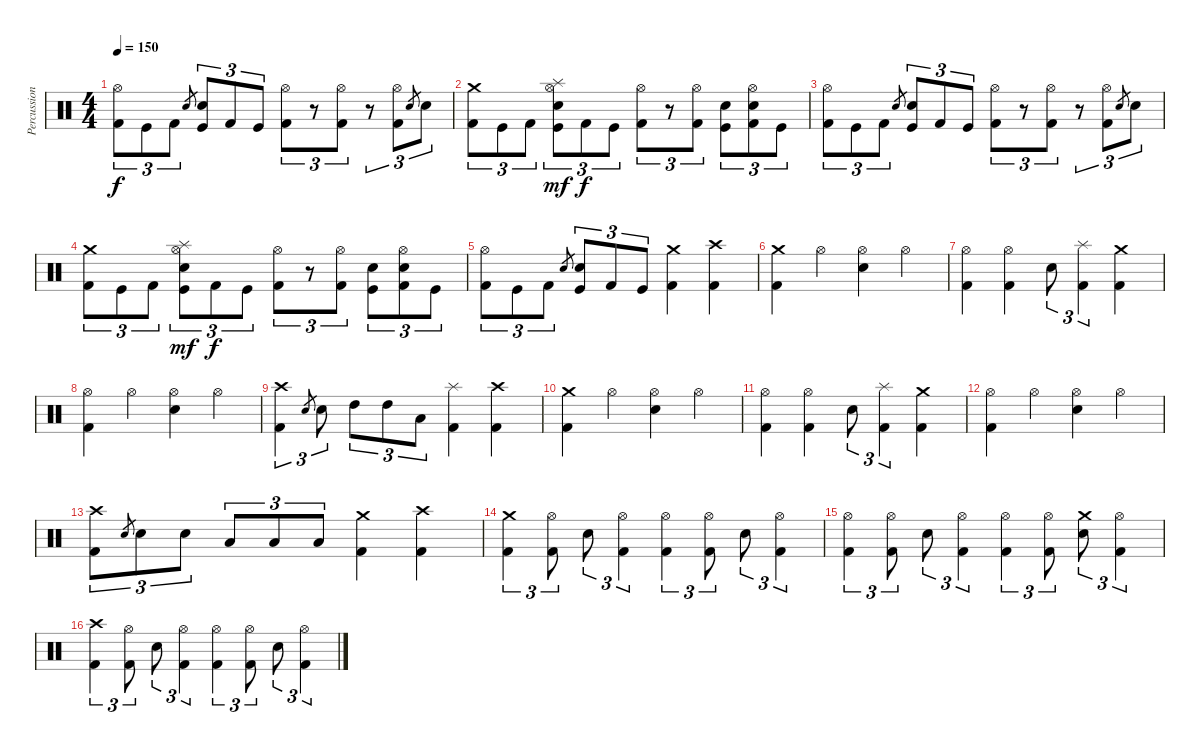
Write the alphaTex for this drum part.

\track ("Percussions" "Percussion") {instrument percussion}
\staff {score}
\articulation defaults
\ts (4 4)
\tempo 150
\clef neutral
\ks c
("Hi-Hat (open)" "Kick (hit) 2").8{tu (3 2) dy f} "Kick (hit)".8{tu (3 2)} "Kick (hit) 2".8{tu (3 2)} "Electric Snare (hit)".8{gr} ("Electric Snare (hit)" "Kick (hit)").8{tu (3 2)} "Kick (hit) 2".8{tu (3 2)} "Kick (hit)".8{tu (3 2)} ("Hi-Hat (open)" "Kick (hit) 2").8{tu (3 2)} r.8{tu (3 2)} ("Hi-Hat (open)" "Kick (hit) 2").8{tu (3 2)} r.8{tu (3 2)} ("Hi-Hat (open)" "Kick (hit) 2").8{tu (3 2)} "Electric Snare (hit)".8{gr} "Electric Snare (hit)".8{tu (3 2)} |
("Crash medium (hit)" "Kick (hit) 2").8{tu (3 2)} "Kick (hit)".8{tu (3 2)} "Kick (hit) 2".8{tu (3 2)} ("Hi-Hat (open)" "Splash (hit)" "Electric Snare (hit)" "Kick (hit)").8{tu (3 2) dy mf} "Kick (hit) 2".8{tu (3 2) dy f} "Kick (hit)".8{tu (3 2)} ("Hi-Hat (open)" "Kick (hit) 2").8{tu (3 2)} r.8{tu (3 2)} ("Hi-Hat (open)" "Kick (hit) 2").8{tu (3 2)} ("Electric Snare (hit)" "Kick (hit)").8{tu (3 2)} ("Hi-Hat (open)" "Electric Snare (hit)" "Kick (hit) 2").8{tu (3 2)} "Kick (hit)".8{tu (3 2)} |
("Hi-Hat (open)" "Kick (hit) 2").8{tu (3 2)} "Kick (hit)".8{tu (3 2)} "Kick (hit) 2".8{tu (3 2)} "Electric Snare (hit)".8{gr} ("Electric Snare (hit)" "Kick (hit)").8{tu (3 2)} "Kick (hit) 2".8{tu (3 2)} "Kick (hit)".8{tu (3 2)} ("Hi-Hat (open)" "Kick (hit) 2").8{tu (3 2)} r.8{tu (3 2)} ("Hi-Hat (open)" "Kick (hit) 2").8{tu (3 2)} r.8{tu (3 2)} ("Hi-Hat (open)" "Kick (hit) 2").8{tu (3 2)} "Electric Snare (hit)".8{gr} "Electric Snare (hit)".8{tu (3 2)} |
("Crash medium (hit)" "Kick (hit) 2").8{tu (3 2)} "Kick (hit)".8{tu (3 2)} "Kick (hit) 2".8{tu (3 2)} ("Hi-Hat (open)" "Splash (hit)" "Electric Snare (hit)" "Kick (hit)").8{tu (3 2) dy mf} "Kick (hit) 2".8{tu (3 2) dy f} "Kick (hit)".8{tu (3 2)} ("Hi-Hat (open)" "Kick (hit) 2").8{tu (3 2)} r.8{tu (3 2)} ("Hi-Hat (open)" "Kick (hit) 2").8{tu (3 2)} ("Electric Snare (hit)" "Kick (hit)").8{tu (3 2)} ("Hi-Hat (open)" "Electric Snare (hit)" "Kick (hit) 2").8{tu (3 2)} "Kick (hit)".8{tu (3 2)} |
("Hi-Hat (open)" "Kick (hit) 2").8{tu (3 2)} "Kick (hit)".8{tu (3 2)} "Kick (hit) 2".8{tu (3 2)} "Electric Snare (hit)".8{gr} ("Electric Snare (hit)" "Kick (hit)").8{tu (3 2)} "Kick (hit) 2".8{tu (3 2)} "Kick (hit)".8{tu (3 2)} ("Crash medium (hit)" "Kick (hit) 2").4 ("Crash high (hit)" "Kick (hit) 2").4 |
("Crash medium (hit)" "Kick (hit) 2").4 "Hi-Hat (open)".4 ("Hi-Hat (open)" "Electric Snare (hit)").4 "Hi-Hat (open)".4 |
("Hi-Hat (open)" "Kick (hit) 2").4 ("Hi-Hat (open)" "Kick (hit) 2").4 "Electric Snare (hit)".8{tu (3 2)} ("Splash (hit)" "Kick (hit) 2").4{tu (3 2)} ("Crash medium (hit)" "Kick (hit) 2").4 |
("Hi-Hat (open)" "Kick (hit) 2").4 "Hi-Hat (open)".4 ("Hi-Hat (open)" "Electric Snare (hit)").4 "Hi-Hat (open)".4 |
("Crash high (hit)" "Kick (hit) 2").4{tu (3 2)} "Electric Snare (hit)".8{gr} "Electric Snare (hit)".8{tu (3 2)} "High Tom (hit)".8{tu (3 2)} "High Tom (hit)".8{tu (3 2)} "Low Tom (hit)".8{tu (3 2)} ("Splash (hit)" "Kick (hit) 2").4 ("Crash high (hit)" "Kick (hit) 2").4 |
("Crash medium (hit)" "Kick (hit) 2").4 "Hi-Hat (open)".4 ("Hi-Hat (open)" "Electric Snare (hit)").4 "Hi-Hat (open)".4 |
("Hi-Hat (open)" "Kick (hit) 2").4 ("Hi-Hat (open)" "Kick (hit) 2").4 "Electric Snare (hit)".8{tu (3 2)} ("Splash (hit)" "Kick (hit) 2").4{tu (3 2)} ("Crash medium (hit)" "Kick (hit) 2").4 |
("Hi-Hat (open)" "Kick (hit) 2").4 "Hi-Hat (open)".4 ("Hi-Hat (open)" "Electric Snare (hit)").4 "Hi-Hat (open)".4 |
("Crash high (hit)" "Kick (hit) 2").8{tu (3 2)} "Electric Snare (hit)".8{gr} "Electric Snare (hit)".8{tu (3 2)} "Electric Snare (hit)".8{tu (3 2)} "Low Tom (hit)".8{tu (3 2)} "Low Tom (hit)".8{tu (3 2)} "Low Floor Tom (hit)".8{tu (3 2)} ("Crash medium (hit)" "Kick (hit) 2").4 ("Crash high (hit)" "Kick (hit) 2").4 |
("Crash medium (hit)" "Kick (hit) 2").4{tu (3 2)} ("Hi-Hat (open)" "Kick (hit) 2").8{tu (3 2)} "Electric Snare (hit)".8{tu (3 2)} ("Hi-Hat (open)" "Kick (hit) 2").4{tu (3 2)} ("Hi-Hat (open)" "Kick (hit) 2").4{tu (3 2)} ("Hi-Hat (open)" "Kick (hit) 2").8{tu (3 2)} "Electric Snare (hit)".8{tu (3 2)} ("Hi-Hat (open)" "Kick (hit) 2").4{tu (3 2)} |
("Hi-Hat (open)" "Kick (hit) 2").4{tu (3 2)} ("Hi-Hat (open)" "Kick (hit) 2").8{tu (3 2)} "Electric Snare (hit)".8{tu (3 2)} ("Hi-Hat (open)" "Kick (hit) 2").4{tu (3 2)} ("Hi-Hat (open)" "Kick (hit) 2").4{tu (3 2)} ("Hi-Hat (open)" "Kick (hit) 2").8{tu (3 2)} ("Crash medium (hit)" "Electric Snare (hit)").8{tu (3 2)} ("Hi-Hat (open)" "Kick (hit) 2").4{tu (3 2)} |
("Crash high (hit)" "Kick (hit) 2").4{tu (3 2)} ("Hi-Hat (open)" "Kick (hit) 2").8{tu (3 2)} "Electric Snare (hit)".8{tu (3 2)} ("Hi-Hat (open)" "Kick (hit) 2").4{tu (3 2)} ("Hi-Hat (open)" "Kick (hit) 2").4{tu (3 2)} ("Hi-Hat (open)" "Kick (hit) 2").8{tu (3 2)} "Electric Snare (hit)".8{tu (3 2)} ("Hi-Hat (open)" "Kick (hit) 2").4{tu (3 2)}
